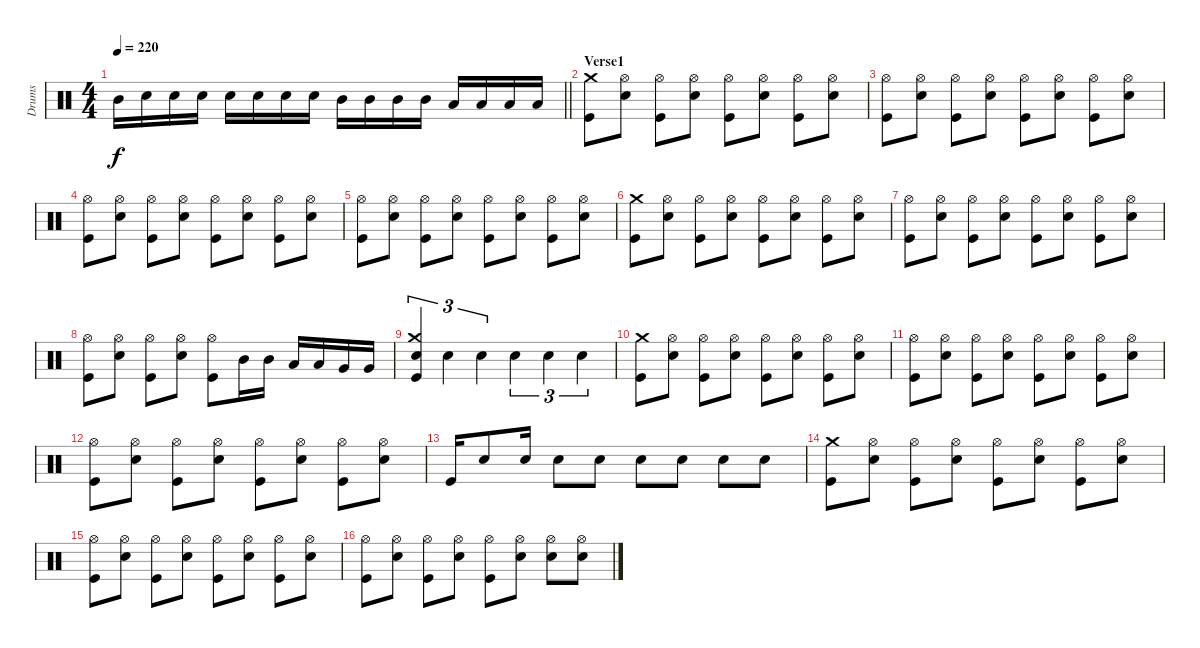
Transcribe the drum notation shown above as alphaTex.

\track ("Drums" "Drums") {instrument percussion}
\staff {score}
\articulation defaults
\ts (4 4)
\tempo 220
\clef neutral
\barLineRight lightlight
\ks c "Mid Tom (hit)".16{dy f} "Snare (hit) 2".16 "Snare (hit) 2".16 "Snare (hit) 2".16 "Snare (hit) 2".16 "Snare (hit) 2".16 "Snare (hit) 2".16 "Snare (hit) 2".16 "Mid Tom (hit)".16 "Mid Tom (hit)".16 "Mid Tom (hit)".16 "Mid Tom (hit)".16 "Low Tom (hit)".16 "Low Tom (hit)".16 "Low Tom (hit)".16 "Low Tom (hit)".16
|
\section ("" "Verse1")
("Crash medium (hit)" "Kick (hit)").8 ("Hi-Hat (open)" "Snare (hit) 2").8 ("Hi-Hat (open)" "Kick (hit)").8 ("Hi-Hat (open)" "Snare (hit) 2").8 ("Hi-Hat (open)" "Kick (hit)").8 ("Hi-Hat (open)" "Snare (hit) 2").8 ("Hi-Hat (open)" "Kick (hit)").8 ("Hi-Hat (open)" "Snare (hit) 2").8 |
("Hi-Hat (open)" "Kick (hit)").8 ("Hi-Hat (open)" "Snare (hit) 2").8 ("Hi-Hat (open)" "Kick (hit)").8 ("Hi-Hat (open)" "Snare (hit) 2").8 ("Hi-Hat (open)" "Kick (hit)").8 ("Hi-Hat (open)" "Snare (hit) 2").8 ("Hi-Hat (open)" "Kick (hit)").8 ("Hi-Hat (open)" "Snare (hit) 2").8 |
("Hi-Hat (open)" "Kick (hit)").8 ("Hi-Hat (open)" "Snare (hit) 2").8 ("Hi-Hat (open)" "Kick (hit)").8 ("Hi-Hat (open)" "Snare (hit) 2").8 ("Hi-Hat (open)" "Kick (hit)").8 ("Hi-Hat (open)" "Snare (hit) 2").8 ("Hi-Hat (open)" "Kick (hit)").8 ("Hi-Hat (open)" "Snare (hit) 2").8 |
("Hi-Hat (open)" "Kick (hit)").8 ("Hi-Hat (open)" "Snare (hit) 2").8 ("Hi-Hat (open)" "Kick (hit)").8 ("Hi-Hat (open)" "Snare (hit) 2").8 ("Hi-Hat (open)" "Kick (hit)").8 ("Hi-Hat (open)" "Snare (hit) 2").8 ("Hi-Hat (open)" "Kick (hit)").8 ("Hi-Hat (open)" "Snare (hit) 2").8 |
("Crash medium (hit)" "Kick (hit)").8 ("Hi-Hat (open)" "Snare (hit) 2").8 ("Hi-Hat (open)" "Kick (hit)").8 ("Hi-Hat (open)" "Snare (hit) 2").8 ("Hi-Hat (open)" "Kick (hit)").8 ("Hi-Hat (open)" "Snare (hit) 2").8 ("Hi-Hat (open)" "Kick (hit)").8 ("Hi-Hat (open)" "Snare (hit) 2").8 |
("Hi-Hat (open)" "Kick (hit)").8 ("Hi-Hat (open)" "Snare (hit) 2").8 ("Hi-Hat (open)" "Kick (hit)").8 ("Hi-Hat (open)" "Snare (hit) 2").8 ("Hi-Hat (open)" "Kick (hit)").8 ("Hi-Hat (open)" "Snare (hit) 2").8 ("Hi-Hat (open)" "Kick (hit)").8 ("Hi-Hat (open)" "Snare (hit) 2").8 |
("Hi-Hat (open)" "Kick (hit)").8 ("Hi-Hat (open)" "Snare (hit) 2").8 ("Hi-Hat (open)" "Kick (hit)").8 ("Hi-Hat (open)" "Snare (hit) 2").8 ("Hi-Hat (open)" "Kick (hit)").8 "Mid Tom (hit)".16 "Mid Tom (hit)".16 "Low Tom (hit)".16 "Low Tom (hit)".16 "Very Low Tom (hit)".16 "Very Low Tom (hit)".16 |
("Crash medium (hit)" "Snare (hit) 2" "Kick (hit)").4{tu (3 2)} "Snare (hit) 2".4{tu (3 2)} "Snare (hit) 2".4{tu (3 2)} "Snare (hit) 2".4{tu (3 2)} "Snare (hit) 2".4{tu (3 2)} "Snare (hit) 2".4{tu (3 2)} |
("Crash medium (hit)" "Kick (hit)").8 ("Hi-Hat (open)" "Snare (hit) 2").8 ("Hi-Hat (open)" "Kick (hit)").8 ("Hi-Hat (open)" "Snare (hit) 2").8 ("Hi-Hat (open)" "Kick (hit)").8 ("Hi-Hat (open)" "Snare (hit) 2").8 ("Hi-Hat (open)" "Kick (hit)").8 ("Hi-Hat (open)" "Snare (hit) 2").8 |
("Hi-Hat (open)" "Kick (hit)").8 ("Hi-Hat (open)" "Snare (hit) 2").8 ("Hi-Hat (open)" "Kick (hit)").8 ("Hi-Hat (open)" "Snare (hit) 2").8 ("Hi-Hat (open)" "Kick (hit)").8 ("Hi-Hat (open)" "Snare (hit) 2").8 ("Hi-Hat (open)" "Kick (hit)").8 ("Hi-Hat (open)" "Snare (hit) 2").8 |
("Hi-Hat (open)" "Kick (hit)").8 ("Hi-Hat (open)" "Snare (hit) 2").8 ("Hi-Hat (open)" "Kick (hit)").8 ("Hi-Hat (open)" "Snare (hit) 2").8 ("Hi-Hat (open)" "Kick (hit)").8 ("Hi-Hat (open)" "Snare (hit) 2").8 ("Hi-Hat (open)" "Kick (hit)").8 ("Hi-Hat (open)" "Snare (hit) 2").8 |
"Kick (hit)".16 "Snare (hit) 2".8 "Snare (hit) 2".16 "Snare (hit) 2".8 "Snare (hit) 2".8 "Snare (hit) 2".8 "Snare (hit) 2".8 "Snare (hit) 2".8 "Snare (hit) 2".8 |
("Crash medium (hit)" "Kick (hit)").8 ("Hi-Hat (open)" "Snare (hit) 2").8 ("Hi-Hat (open)" "Kick (hit)").8 ("Hi-Hat (open)" "Snare (hit) 2").8 ("Hi-Hat (open)" "Kick (hit)").8 ("Hi-Hat (open)" "Snare (hit) 2").8 ("Hi-Hat (open)" "Kick (hit)").8 ("Hi-Hat (open)" "Snare (hit) 2").8 |
("Hi-Hat (open)" "Kick (hit)").8 ("Hi-Hat (open)" "Snare (hit) 2").8 ("Hi-Hat (open)" "Kick (hit)").8 ("Hi-Hat (open)" "Snare (hit) 2").8 ("Hi-Hat (open)" "Kick (hit)").8 ("Hi-Hat (open)" "Snare (hit) 2").8 ("Hi-Hat (open)" "Kick (hit)").8 ("Hi-Hat (open)" "Snare (hit) 2").8 |
("Hi-Hat (open)" "Kick (hit)").8 ("Hi-Hat (open)" "Snare (hit) 2").8 ("Hi-Hat (open)" "Kick (hit)").8 ("Hi-Hat (open)" "Snare (hit) 2").8 ("Hi-Hat (open)" "Kick (hit)").8 ("Hi-Hat (open)" "Snare (hit) 2").8 ("Hi-Hat (open)" "Snare (hit) 2").8 ("Hi-Hat (open)" "Snare (hit) 2").8
